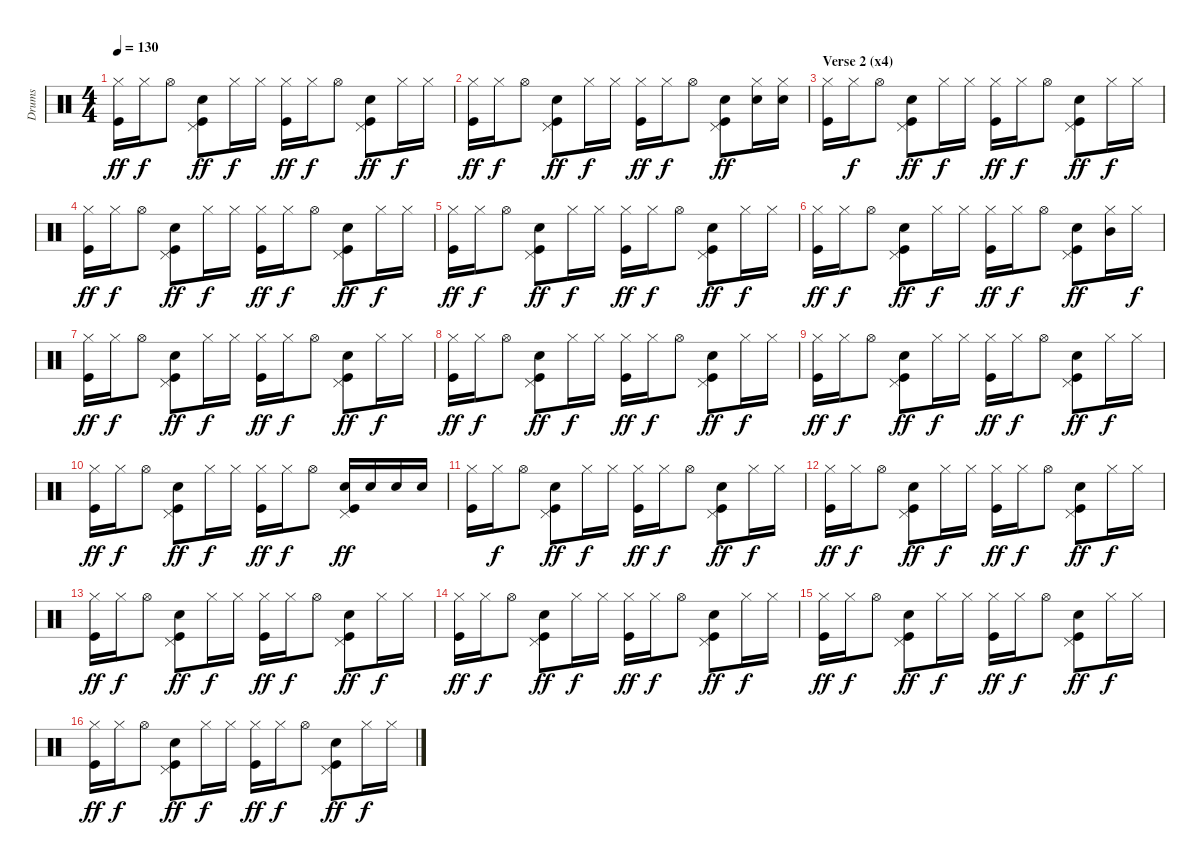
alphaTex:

\track ("Drums" "Drums") {instrument percussion}
\staff {score}
\articulation defaults
\ts (4 4)
\tempo 130
\clef neutral
\ks c
("Hi-Hat (closed)" "Kick (hit)").16{dy ff} "Hi-Hat (closed)".16{dy f} "Hi-Hat (open)".8 ("Pedal Hi-Hat (hit)" "Electric Snare (hit)" "Kick (hit)").8{dy ff} "Hi-Hat (closed)".16{dy f} "Hi-Hat (closed)".16 ("Hi-Hat (closed)" "Kick (hit)").16{dy ff} "Hi-Hat (closed)".16{dy f} "Hi-Hat (open)".8 ("Pedal Hi-Hat (hit)" "Electric Snare (hit)" "Kick (hit)").8{dy ff} "Hi-Hat (closed)".16{dy f} "Hi-Hat (closed)".16 |
("Hi-Hat (closed)" "Kick (hit)").16{dy ff} "Hi-Hat (closed)".16{dy f} "Hi-Hat (open)".8 ("Pedal Hi-Hat (hit)" "Electric Snare (hit)" "Kick (hit)").8{dy ff} "Hi-Hat (closed)".16{dy f} "Hi-Hat (closed)".16 ("Hi-Hat (closed)" "Kick (hit)").16{dy ff} "Hi-Hat (closed)".16{dy f} "Hi-Hat (open)".8 ("Pedal Hi-Hat (hit)" "Electric Snare (hit)" "Kick (hit)").8{dy ff} ("Hi-Hat (closed)" "Electric Snare (hit)").16 ("Hi-Hat (closed)" "Electric Snare (hit)").16 |
\section ("" "Verse 2 (x4)")
("Hi-Hat (closed)" "Kick (hit)").16 "Hi-Hat (closed)".16{dy f} "Hi-Hat (open)".8 ("Pedal Hi-Hat (hit)" "Electric Snare (hit)" "Kick (hit)").8{dy ff} "Hi-Hat (closed)".16{dy f} "Hi-Hat (closed)".16 ("Hi-Hat (closed)" "Kick (hit)").16{dy ff} "Hi-Hat (closed)".16{dy f} "Hi-Hat (open)".8 ("Pedal Hi-Hat (hit)" "Electric Snare (hit)" "Kick (hit)").8{dy ff} "Hi-Hat (closed)".16{dy f} "Hi-Hat (closed)".16 |
("Hi-Hat (closed)" "Kick (hit)").16{dy ff} "Hi-Hat (closed)".16{dy f} "Hi-Hat (open)".8 ("Pedal Hi-Hat (hit)" "Electric Snare (hit)" "Kick (hit)").8{dy ff} "Hi-Hat (closed)".16{dy f} "Hi-Hat (closed)".16 ("Hi-Hat (closed)" "Kick (hit)").16{dy ff} "Hi-Hat (closed)".16{dy f} "Hi-Hat (open)".8 ("Pedal Hi-Hat (hit)" "Electric Snare (hit)" "Kick (hit)").8{dy ff} "Hi-Hat (closed)".16{dy f} "Hi-Hat (closed)".16 |
("Hi-Hat (closed)" "Kick (hit)").16{dy ff} "Hi-Hat (closed)".16{dy f} "Hi-Hat (open)".8 ("Pedal Hi-Hat (hit)" "Electric Snare (hit)" "Kick (hit)").8{dy ff} "Hi-Hat (closed)".16{dy f} "Hi-Hat (closed)".16 ("Hi-Hat (closed)" "Kick (hit)").16{dy ff} "Hi-Hat (closed)".16{dy f} "Hi-Hat (open)".8 ("Pedal Hi-Hat (hit)" "Electric Snare (hit)" "Kick (hit)").8{dy ff} "Hi-Hat (closed)".16{dy f} "Hi-Hat (closed)".16 |
("Hi-Hat (closed)" "Kick (hit)").16{dy ff} "Hi-Hat (closed)".16{dy f} "Hi-Hat (open)".8 ("Pedal Hi-Hat (hit)" "Electric Snare (hit)" "Kick (hit)").8{dy ff} "Hi-Hat (closed)".16{dy f} "Hi-Hat (closed)".16 ("Hi-Hat (closed)" "Kick (hit)").16{dy ff} "Hi-Hat (closed)".16{dy f} "Hi-Hat (open)".8 ("Pedal Hi-Hat (hit)" "Electric Snare (hit)" "Kick (hit)").8{dy ff} ("Hi-Hat (closed)" "Mid Tom (hit)").16 "Hi-Hat (closed)".16{dy f} |
("Hi-Hat (closed)" "Kick (hit)").16{dy ff} "Hi-Hat (closed)".16{dy f} "Hi-Hat (open)".8 ("Pedal Hi-Hat (hit)" "Electric Snare (hit)" "Kick (hit)").8{dy ff} "Hi-Hat (closed)".16{dy f} "Hi-Hat (closed)".16 ("Hi-Hat (closed)" "Kick (hit)").16{dy ff} "Hi-Hat (closed)".16{dy f} "Hi-Hat (open)".8 ("Pedal Hi-Hat (hit)" "Electric Snare (hit)" "Kick (hit)").8{dy ff} "Hi-Hat (closed)".16{dy f} "Hi-Hat (closed)".16 |
("Hi-Hat (closed)" "Kick (hit)").16{dy ff} "Hi-Hat (closed)".16{dy f} "Hi-Hat (open)".8 ("Pedal Hi-Hat (hit)" "Electric Snare (hit)" "Kick (hit)").8{dy ff} "Hi-Hat (closed)".16{dy f} "Hi-Hat (closed)".16 ("Hi-Hat (closed)" "Kick (hit)").16{dy ff} "Hi-Hat (closed)".16{dy f} "Hi-Hat (open)".8 ("Pedal Hi-Hat (hit)" "Electric Snare (hit)" "Kick (hit)").8{dy ff} "Hi-Hat (closed)".16{dy f} "Hi-Hat (closed)".16 |
("Hi-Hat (closed)" "Kick (hit)").16{dy ff} "Hi-Hat (closed)".16{dy f} "Hi-Hat (open)".8 ("Pedal Hi-Hat (hit)" "Electric Snare (hit)" "Kick (hit)").8{dy ff} "Hi-Hat (closed)".16{dy f} "Hi-Hat (closed)".16 ("Hi-Hat (closed)" "Kick (hit)").16{dy ff} "Hi-Hat (closed)".16{dy f} "Hi-Hat (open)".8 ("Pedal Hi-Hat (hit)" "Electric Snare (hit)" "Kick (hit)").8{dy ff} "Hi-Hat (closed)".16{dy f} "Hi-Hat (closed)".16 |
("Hi-Hat (closed)" "Kick (hit)").16{dy ff} "Hi-Hat (closed)".16{dy f} "Hi-Hat (open)".8 ("Pedal Hi-Hat (hit)" "Electric Snare (hit)" "Kick (hit)").8{dy ff} "Hi-Hat (closed)".16{dy f} "Hi-Hat (closed)".16 ("Hi-Hat (closed)" "Kick (hit)").16{dy ff} "Hi-Hat (closed)".16{dy f} "Hi-Hat (open)".8 ("Pedal Hi-Hat (hit)" "Electric Snare (hit)" "Kick (hit)").16{dy ff} "Electric Snare (hit)".16 "Electric Snare (hit)".16 "Electric Snare (hit)".16 |
("Hi-Hat (closed)" "Kick (hit)").16 "Hi-Hat (closed)".16{dy f} "Hi-Hat (open)".8 ("Pedal Hi-Hat (hit)" "Electric Snare (hit)" "Kick (hit)").8{dy ff} "Hi-Hat (closed)".16{dy f} "Hi-Hat (closed)".16 ("Hi-Hat (closed)" "Kick (hit)").16{dy ff} "Hi-Hat (closed)".16{dy f} "Hi-Hat (open)".8 ("Pedal Hi-Hat (hit)" "Electric Snare (hit)" "Kick (hit)").8{dy ff} "Hi-Hat (closed)".16{dy f} "Hi-Hat (closed)".16 |
("Hi-Hat (closed)" "Kick (hit)").16{dy ff} "Hi-Hat (closed)".16{dy f} "Hi-Hat (open)".8 ("Pedal Hi-Hat (hit)" "Electric Snare (hit)" "Kick (hit)").8{dy ff} "Hi-Hat (closed)".16{dy f} "Hi-Hat (closed)".16 ("Hi-Hat (closed)" "Kick (hit)").16{dy ff} "Hi-Hat (closed)".16{dy f} "Hi-Hat (open)".8 ("Pedal Hi-Hat (hit)" "Electric Snare (hit)" "Kick (hit)").8{dy ff} "Hi-Hat (closed)".16{dy f} "Hi-Hat (closed)".16 |
("Hi-Hat (closed)" "Kick (hit)").16{dy ff} "Hi-Hat (closed)".16{dy f} "Hi-Hat (open)".8 ("Pedal Hi-Hat (hit)" "Electric Snare (hit)" "Kick (hit)").8{dy ff} "Hi-Hat (closed)".16{dy f} "Hi-Hat (closed)".16 ("Hi-Hat (closed)" "Kick (hit)").16{dy ff} "Hi-Hat (closed)".16{dy f} "Hi-Hat (open)".8 ("Pedal Hi-Hat (hit)" "Electric Snare (hit)" "Kick (hit)").8{dy ff} "Hi-Hat (closed)".16{dy f} "Hi-Hat (closed)".16 |
("Hi-Hat (closed)" "Kick (hit)").16{dy ff} "Hi-Hat (closed)".16{dy f} "Hi-Hat (open)".8 ("Pedal Hi-Hat (hit)" "Electric Snare (hit)" "Kick (hit)").8{dy ff} "Hi-Hat (closed)".16{dy f} "Hi-Hat (closed)".16 ("Hi-Hat (closed)" "Kick (hit)").16{dy ff} "Hi-Hat (closed)".16{dy f} "Hi-Hat (open)".8 ("Pedal Hi-Hat (hit)" "Electric Snare (hit)" "Kick (hit)").8{dy ff} "Hi-Hat (closed)".16{dy f} "Hi-Hat (closed)".16 |
("Hi-Hat (closed)" "Kick (hit)").16{dy ff} "Hi-Hat (closed)".16{dy f} "Hi-Hat (open)".8 ("Pedal Hi-Hat (hit)" "Electric Snare (hit)" "Kick (hit)").8{dy ff} "Hi-Hat (closed)".16{dy f} "Hi-Hat (closed)".16 ("Hi-Hat (closed)" "Kick (hit)").16{dy ff} "Hi-Hat (closed)".16{dy f} "Hi-Hat (open)".8 ("Pedal Hi-Hat (hit)" "Electric Snare (hit)" "Kick (hit)").8{dy ff} "Hi-Hat (closed)".16{dy f} "Hi-Hat (closed)".16 |
("Hi-Hat (closed)" "Kick (hit)").16{dy ff} "Hi-Hat (closed)".16{dy f} "Hi-Hat (open)".8 ("Pedal Hi-Hat (hit)" "Electric Snare (hit)" "Kick (hit)").8{dy ff} "Hi-Hat (closed)".16{dy f} "Hi-Hat (closed)".16 ("Hi-Hat (closed)" "Kick (hit)").16{dy ff} "Hi-Hat (closed)".16{dy f} "Hi-Hat (open)".8 ("Pedal Hi-Hat (hit)" "Electric Snare (hit)" "Kick (hit)").8{dy ff} "Hi-Hat (closed)".16{dy f} "Hi-Hat (closed)".16
